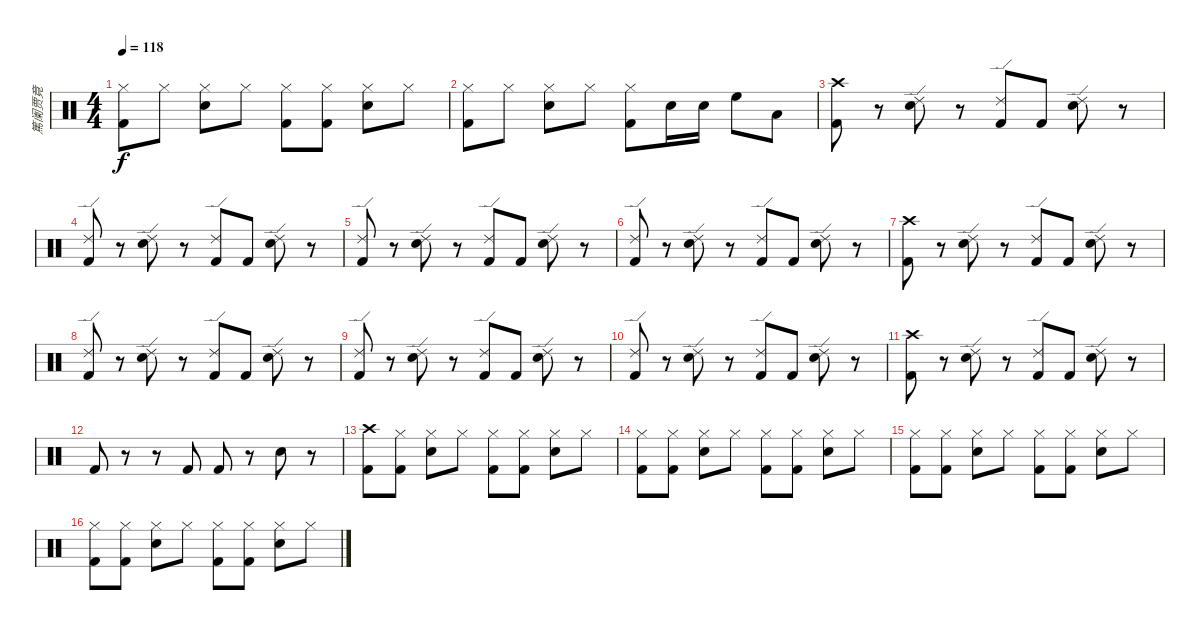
\track ("篤阑贾竟" "篤阑贾竟") {instrument percussion}
\staff {score}
\articulation defaults
\ts (4 4)
\tempo 118
\clef neutral
\ks c
("Hi-Hat (closed)" "Kick (hit) 2").8{dy f} "Hi-Hat (closed)".8 ("Hi-Hat (closed)" "Snare (hit) 2").8 "Hi-Hat (closed)".8 ("Hi-Hat (closed)" "Kick (hit) 2").8 ("Hi-Hat (closed)" "Kick (hit) 2").8 ("Hi-Hat (closed)" "Snare (hit) 2").8 "Hi-Hat (closed)".8 |
("Hi-Hat (closed)" "Kick (hit) 2").8 "Hi-Hat (closed)".8 ("Hi-Hat (closed)" "Snare (hit) 2").8 "Hi-Hat (closed)".8 ("Hi-Hat (closed)" "Kick (hit) 2").8 "Snare (hit) 2".16 "Snare (hit) 2".16 "High Floor Tom (hit)".8 "Low Tom (hit)".8 |
("Crash high (hit)" "Kick (hit) 2").8 r.8 ("Ride (edge) 2" "Snare (hit) 2").8 r.8 ("Ride (edge) 2" "Kick (hit) 2").8 "Kick (hit) 2".8 ("Ride (edge) 2" "Snare (hit) 2").8 r.8 |
("Ride (edge) 2" "Kick (hit) 2").8 r.8 ("Ride (edge) 2" "Snare (hit) 2").8 r.8 ("Ride (edge) 2" "Kick (hit) 2").8 "Kick (hit) 2".8 ("Ride (edge) 2" "Snare (hit) 2").8 r.8 |
("Ride (edge) 2" "Kick (hit) 2").8 r.8 ("Ride (edge) 2" "Snare (hit) 2").8 r.8 ("Ride (edge) 2" "Kick (hit) 2").8 "Kick (hit) 2".8 ("Ride (edge) 2" "Snare (hit) 2").8 r.8 |
("Ride (edge) 2" "Kick (hit) 2").8 r.8 ("Ride (edge) 2" "Snare (hit) 2").8 r.8 ("Ride (edge) 2" "Kick (hit) 2").8 "Kick (hit) 2".8 ("Ride (edge) 2" "Snare (hit) 2").8 r.8 |
("Crash high (hit)" "Kick (hit) 2").8 r.8 ("Ride (edge) 2" "Snare (hit) 2").8 r.8 ("Ride (edge) 2" "Kick (hit) 2").8 "Kick (hit) 2".8 ("Ride (edge) 2" "Snare (hit) 2").8 r.8 |
("Ride (edge) 2" "Kick (hit) 2").8 r.8 ("Ride (edge) 2" "Snare (hit) 2").8 r.8 ("Ride (edge) 2" "Kick (hit) 2").8 "Kick (hit) 2".8 ("Ride (edge) 2" "Snare (hit) 2").8 r.8 |
("Ride (edge) 2" "Kick (hit) 2").8 r.8 ("Ride (edge) 2" "Snare (hit) 2").8 r.8 ("Ride (edge) 2" "Kick (hit) 2").8 "Kick (hit) 2".8 ("Ride (edge) 2" "Snare (hit) 2").8 r.8 |
("Ride (edge) 2" "Kick (hit) 2").8 r.8 ("Ride (edge) 2" "Snare (hit) 2").8 r.8 ("Ride (edge) 2" "Kick (hit) 2").8 "Kick (hit) 2".8 ("Ride (edge) 2" "Snare (hit) 2").8 r.8 |
("Crash high (hit)" "Kick (hit) 2").8 r.8 ("Ride (edge) 2" "Snare (hit) 2").8 r.8 ("Ride (edge) 2" "Kick (hit) 2").8 "Kick (hit) 2".8 ("Ride (edge) 2" "Snare (hit) 2").8 r.8 |
"Kick (hit) 2".8 r.8 r.8 "Kick (hit) 2".8 "Kick (hit) 2".8 r.8 "Snare (hit) 2".8 r.8 |
("Crash high (hit)" "Kick (hit) 2").8 ("Hi-Hat (closed)" "Kick (hit) 2").8 ("Hi-Hat (closed)" "Snare (hit) 2").8 "Hi-Hat (closed)".8 ("Hi-Hat (closed)" "Kick (hit) 2").8 ("Hi-Hat (closed)" "Kick (hit) 2").8 ("Hi-Hat (closed)" "Snare (hit) 2").8 "Hi-Hat (closed)".8 |
("Hi-Hat (closed)" "Kick (hit) 2").8 ("Hi-Hat (closed)" "Kick (hit) 2").8 ("Hi-Hat (closed)" "Snare (hit) 2").8 "Hi-Hat (closed)".8 ("Hi-Hat (closed)" "Kick (hit) 2").8 ("Hi-Hat (closed)" "Kick (hit) 2").8 ("Hi-Hat (closed)" "Snare (hit) 2").8 "Hi-Hat (closed)".8 |
("Hi-Hat (closed)" "Kick (hit) 2").8 ("Hi-Hat (closed)" "Kick (hit) 2").8 ("Hi-Hat (closed)" "Snare (hit) 2").8 "Hi-Hat (closed)".8 ("Hi-Hat (closed)" "Kick (hit) 2").8 ("Hi-Hat (closed)" "Kick (hit) 2").8 ("Hi-Hat (closed)" "Snare (hit) 2").8 "Hi-Hat (closed)".8 |
("Hi-Hat (closed)" "Kick (hit) 2").8 ("Hi-Hat (closed)" "Kick (hit) 2").8 ("Hi-Hat (closed)" "Snare (hit) 2").8 "Hi-Hat (closed)".8 ("Hi-Hat (closed)" "Kick (hit) 2").8 ("Hi-Hat (closed)" "Kick (hit) 2").8 ("Hi-Hat (closed)" "Snare (hit) 2").8 "Hi-Hat (closed)".8
